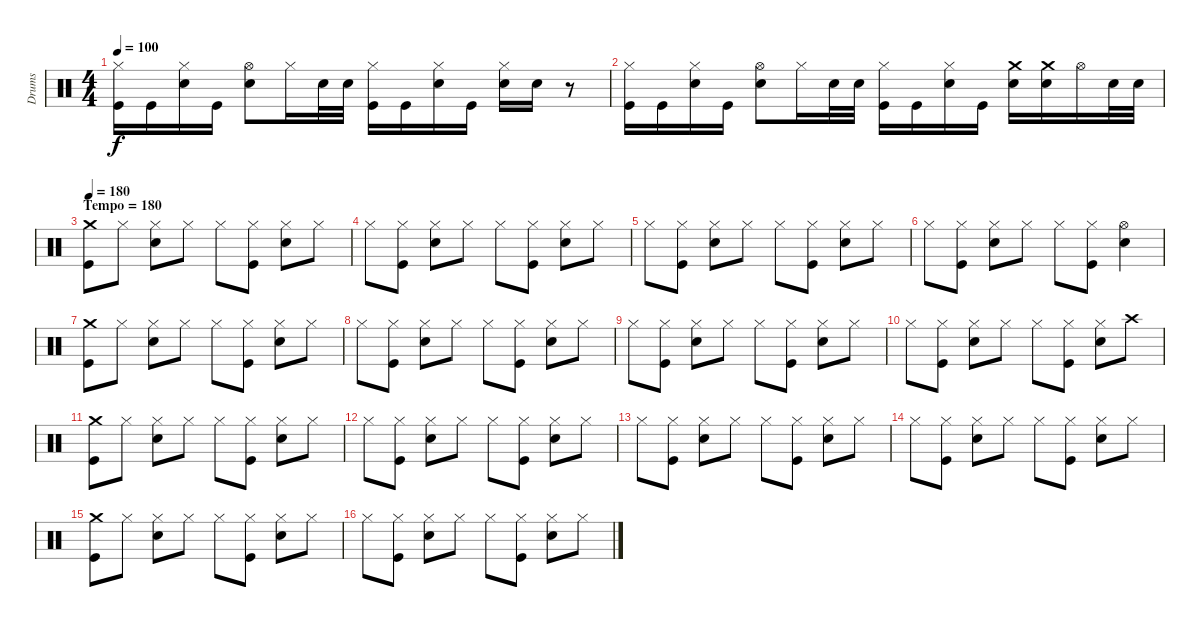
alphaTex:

\track ("Drums" "Drums") {instrument percussion}
\staff {score}
\articulation defaults
\ts (4 4)
\tempo 100
\clef neutral
\ks c
("Hi-Hat (closed)" "Kick (hit)").16{dy f} "Kick (hit)".16 ("Hi-Hat (closed)" "Electric Snare (hit)").16 "Kick (hit)".16 ("Hi-Hat (open)" "Electric Snare (hit)").8 "Hi-Hat (closed)".16 "Electric Snare (hit)".32 "Electric Snare (hit)".32 ("Hi-Hat (closed)" "Kick (hit)").16 "Kick (hit)".16 ("Hi-Hat (closed)" "Electric Snare (hit)").16 "Kick (hit)".16 ("Hi-Hat (closed)" "Electric Snare (hit)").16 "Electric Snare (hit)".16 r.8 |
("Hi-Hat (closed)" "Kick (hit)").16 "Kick (hit)".16 ("Hi-Hat (closed)" "Electric Snare (hit)").16 "Kick (hit)".16 ("Hi-Hat (open)" "Electric Snare (hit)").8 "Hi-Hat (closed)".16 "Electric Snare (hit)".32 "Electric Snare (hit)".32 ("Hi-Hat (closed)" "Kick (hit)").16 "Kick (hit)".16 ("Hi-Hat (closed)" "Electric Snare (hit)").16 "Kick (hit)".16 ("Crash medium (hit)" "Electric Snare (hit)").16 ("Crash medium (hit)" "Electric Snare (hit)").16 "Hi-Hat (open)".16 "Electric Snare (hit)".32 "Electric Snare (hit)".32 |
\section ("" "Tempo = 180")
\tempo 180
("Crash medium (hit)" "Kick (hit)").8 "Hi-Hat (closed)".8 ("Hi-Hat (closed)" "Electric Snare (hit)").8 "Hi-Hat (closed)".8 "Hi-Hat (closed)".8 ("Hi-Hat (closed)" "Kick (hit)").8 ("Hi-Hat (closed)" "Electric Snare (hit)").8 "Hi-Hat (closed)".8 |
"Hi-Hat (closed)".8 ("Hi-Hat (closed)" "Kick (hit)").8 ("Hi-Hat (closed)" "Electric Snare (hit)").8 "Hi-Hat (closed)".8 "Hi-Hat (closed)".8 ("Hi-Hat (closed)" "Kick (hit)").8 ("Hi-Hat (closed)" "Electric Snare (hit)").8 "Hi-Hat (closed)".8 |
"Hi-Hat (closed)".8 ("Hi-Hat (closed)" "Kick (hit)").8 ("Hi-Hat (closed)" "Electric Snare (hit)").8 "Hi-Hat (closed)".8 "Hi-Hat (closed)".8 ("Hi-Hat (closed)" "Kick (hit)").8 ("Hi-Hat (closed)" "Electric Snare (hit)").8 "Hi-Hat (closed)".8 |
"Hi-Hat (closed)".8 ("Hi-Hat (closed)" "Kick (hit)").8 ("Hi-Hat (closed)" "Electric Snare (hit)").8 "Hi-Hat (closed)".8 "Hi-Hat (closed)".8 ("Hi-Hat (closed)" "Kick (hit)").8 ("Hi-Hat (open)" "Electric Snare (hit)").4 |
("Crash medium (hit)" "Kick (hit)").8 "Hi-Hat (closed)".8 ("Hi-Hat (closed)" "Electric Snare (hit)").8 "Hi-Hat (closed)".8 "Hi-Hat (closed)".8 ("Hi-Hat (closed)" "Kick (hit)").8 ("Hi-Hat (closed)" "Electric Snare (hit)").8 "Hi-Hat (closed)".8 |
"Hi-Hat (closed)".8 ("Hi-Hat (closed)" "Kick (hit)").8 ("Hi-Hat (closed)" "Electric Snare (hit)").8 "Hi-Hat (closed)".8 "Hi-Hat (closed)".8 ("Hi-Hat (closed)" "Kick (hit)").8 ("Hi-Hat (closed)" "Electric Snare (hit)").8 "Hi-Hat (closed)".8 |
"Hi-Hat (closed)".8 ("Hi-Hat (closed)" "Kick (hit)").8 ("Hi-Hat (closed)" "Electric Snare (hit)").8 "Hi-Hat (closed)".8 "Hi-Hat (closed)".8 ("Hi-Hat (closed)" "Kick (hit)").8 ("Hi-Hat (closed)" "Electric Snare (hit)").8 "Hi-Hat (closed)".8 |
"Hi-Hat (closed)".8 ("Hi-Hat (closed)" "Kick (hit)").8 ("Hi-Hat (closed)" "Electric Snare (hit)").8 "Hi-Hat (closed)".8 "Hi-Hat (closed)".8 ("Hi-Hat (closed)" "Kick (hit)").8 ("Hi-Hat (closed)" "Electric Snare (hit)").8 "Crash high (hit)".8 |
("Crash medium (hit)" "Kick (hit)").8 "Hi-Hat (closed)".8 ("Hi-Hat (closed)" "Electric Snare (hit)").8 "Hi-Hat (closed)".8 "Hi-Hat (closed)".8 ("Hi-Hat (closed)" "Kick (hit)").8 ("Hi-Hat (closed)" "Electric Snare (hit)").8 "Hi-Hat (closed)".8 |
"Hi-Hat (closed)".8 ("Hi-Hat (closed)" "Kick (hit)").8 ("Hi-Hat (closed)" "Electric Snare (hit)").8 "Hi-Hat (closed)".8 "Hi-Hat (closed)".8 ("Hi-Hat (closed)" "Kick (hit)").8 ("Hi-Hat (closed)" "Electric Snare (hit)").8 "Hi-Hat (closed)".8 |
"Hi-Hat (closed)".8 ("Hi-Hat (closed)" "Kick (hit)").8 ("Hi-Hat (closed)" "Electric Snare (hit)").8 "Hi-Hat (closed)".8 "Hi-Hat (closed)".8 ("Hi-Hat (closed)" "Kick (hit)").8 ("Hi-Hat (closed)" "Electric Snare (hit)").8 "Hi-Hat (closed)".8 |
"Hi-Hat (closed)".8 ("Hi-Hat (closed)" "Kick (hit)").8 ("Hi-Hat (closed)" "Electric Snare (hit)").8 "Hi-Hat (closed)".8 "Hi-Hat (closed)".8 ("Hi-Hat (closed)" "Kick (hit)").8 ("Hi-Hat (closed)" "Electric Snare (hit)").8 "Hi-Hat (closed)".8 |
("Crash medium (hit)" "Kick (hit)").8 "Hi-Hat (closed)".8 ("Hi-Hat (closed)" "Electric Snare (hit)").8 "Hi-Hat (closed)".8 "Hi-Hat (closed)".8 ("Hi-Hat (closed)" "Kick (hit)").8 ("Hi-Hat (closed)" "Electric Snare (hit)").8 "Hi-Hat (closed)".8 |
"Hi-Hat (closed)".8 ("Hi-Hat (closed)" "Kick (hit)").8 ("Hi-Hat (closed)" "Electric Snare (hit)").8 "Hi-Hat (closed)".8 "Hi-Hat (closed)".8 ("Hi-Hat (closed)" "Kick (hit)").8 ("Hi-Hat (closed)" "Electric Snare (hit)").8 "Hi-Hat (closed)".8
